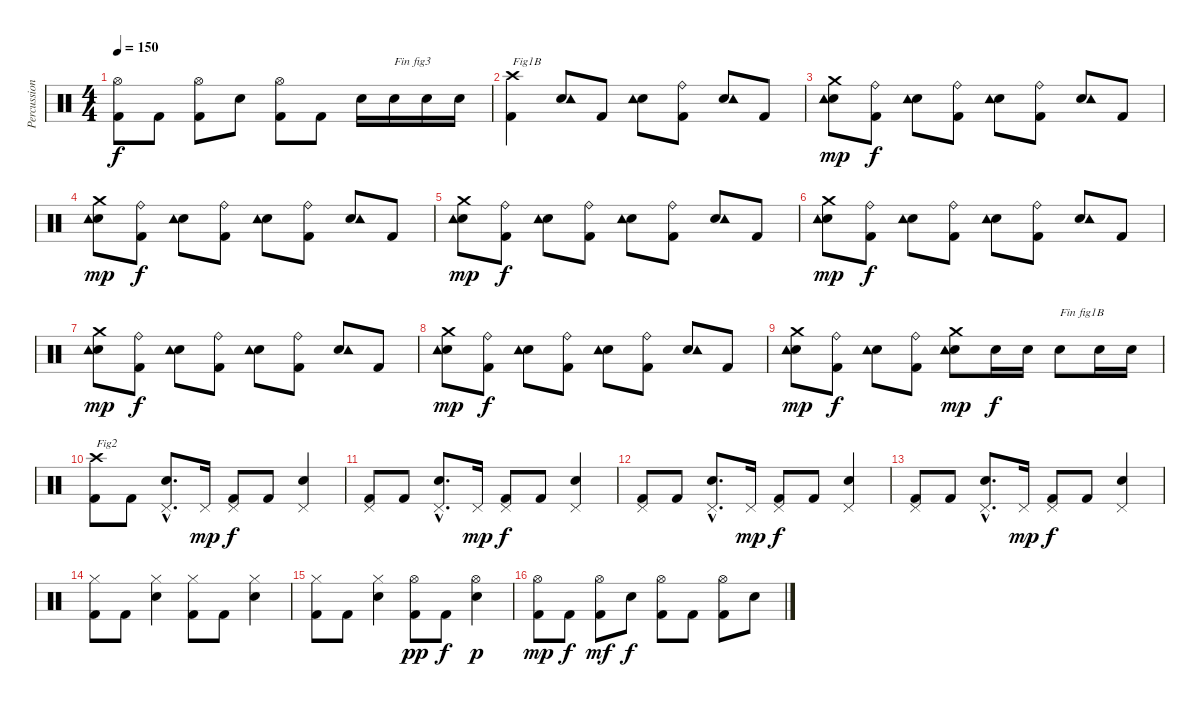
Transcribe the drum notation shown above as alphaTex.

\track ("Percussions" "Percussion") {instrument percussion}
\staff {score}
\articulation defaults
\ts (4 4)
\tempo 150
\clef neutral
\ks c
("Kick (hit) 2" "Hi-Hat (open)").8{dy f} "Kick (hit) 2".8 ("Kick (hit) 2" "Hi-Hat (open)").8 "Electric Snare (hit)".8 ("Kick (hit) 2" "Hi-Hat (open)").8 "Kick (hit) 2".8 "Electric Snare (hit)".16 "Electric Snare (hit)".16{txt "Fin fig3"} "Electric Snare (hit)".16 "Electric Snare (hit)".16 |
("Kick (hit) 2" "Crash high (hit)").4{txt "Fig1B"} ("Electric Snare (hit)" "Tambourine (hit)").8 "Kick (hit) 2".8 ("Electric Snare (hit)" "Tambourine (hit)").8 ("Kick (hit) 2" "Ride (bell)").8 ("Electric Snare (hit)" "Tambourine (hit)").8 "Kick (hit) 2".8 |
("Electric Snare (hit)" "Crash medium (hit)" "Tambourine (hit)").8{dy mp} ("Kick (hit) 2" "Ride (bell)").8{dy f} ("Electric Snare (hit)" "Tambourine (hit)").8 ("Kick (hit) 2" "Ride (bell)").8 ("Electric Snare (hit)" "Tambourine (hit)").8 ("Kick (hit) 2" "Ride (bell)").8 ("Electric Snare (hit)" "Tambourine (hit)").8 "Kick (hit) 2".8 |
("Electric Snare (hit)" "Crash medium (hit)" "Tambourine (hit)").8{dy mp} ("Kick (hit) 2" "Ride (bell)").8{dy f} ("Electric Snare (hit)" "Tambourine (hit)").8 ("Kick (hit) 2" "Ride (bell)").8 ("Electric Snare (hit)" "Tambourine (hit)").8 ("Kick (hit) 2" "Ride (bell)").8 ("Electric Snare (hit)" "Tambourine (hit)").8 "Kick (hit) 2".8 |
("Electric Snare (hit)" "Crash medium (hit)" "Tambourine (hit)").8{dy mp} ("Kick (hit) 2" "Ride (bell)").8{dy f} ("Electric Snare (hit)" "Tambourine (hit)").8 ("Kick (hit) 2" "Ride (bell)").8 ("Electric Snare (hit)" "Tambourine (hit)").8 ("Kick (hit) 2" "Ride (bell)").8 ("Electric Snare (hit)" "Tambourine (hit)").8 "Kick (hit) 2".8 |
("Electric Snare (hit)" "Crash medium (hit)" "Tambourine (hit)").8{dy mp} ("Kick (hit) 2" "Ride (bell)").8{dy f} ("Electric Snare (hit)" "Tambourine (hit)").8 ("Kick (hit) 2" "Ride (bell)").8 ("Electric Snare (hit)" "Tambourine (hit)").8 ("Kick (hit) 2" "Ride (bell)").8 ("Electric Snare (hit)" "Tambourine (hit)").8 "Kick (hit) 2".8 |
("Electric Snare (hit)" "Crash medium (hit)" "Tambourine (hit)").8{dy mp} ("Kick (hit) 2" "Ride (bell)").8{dy f} ("Electric Snare (hit)" "Tambourine (hit)").8 ("Kick (hit) 2" "Ride (bell)").8 ("Electric Snare (hit)" "Tambourine (hit)").8 ("Kick (hit) 2" "Ride (bell)").8 ("Electric Snare (hit)" "Tambourine (hit)").8 "Kick (hit) 2".8 |
("Electric Snare (hit)" "Crash medium (hit)" "Tambourine (hit)").8{dy mp} ("Kick (hit) 2" "Ride (bell)").8{dy f} ("Electric Snare (hit)" "Tambourine (hit)").8 ("Kick (hit) 2" "Ride (bell)").8 ("Electric Snare (hit)" "Tambourine (hit)").8 ("Kick (hit) 2" "Ride (bell)").8 ("Electric Snare (hit)" "Tambourine (hit)").8 "Kick (hit) 2".8 |
("Electric Snare (hit)" "Crash medium (hit)" "Tambourine (hit)").8{dy mp} ("Kick (hit) 2" "Ride (bell)").8{dy f} ("Electric Snare (hit)" "Tambourine (hit)").8 ("Kick (hit) 2" "Ride (bell)").8 ("Electric Snare (hit)" "Crash medium (hit)" "Tambourine (hit)").8{dy mp} "Electric Snare (hit)".16{dy f} "Electric Snare (hit)".16 "Electric Snare (hit)".8{txt "Fin fig1B"} "Electric Snare (hit)".16 "Electric Snare (hit)".16 |
("Kick (hit) 2" "Crash high (hit)").8{txt "Fig2"} "Kick (hit) 2".8 ("Electric Snare (hit)"{hac} "Pedal Hi-Hat (hit)"{hac}).8{d} "Pedal Hi-Hat (hit)".16{dy mp} ("Kick (hit) 2" "Pedal Hi-Hat (hit)").8{dy f} "Kick (hit) 2".8 ("Electric Snare (hit)" "Pedal Hi-Hat (hit)").4 |
("Kick (hit) 2" "Pedal Hi-Hat (hit)").8 "Kick (hit) 2".8 ("Electric Snare (hit)"{hac} "Pedal Hi-Hat (hit)"{hac}).8{d} "Pedal Hi-Hat (hit)".16{dy mp} ("Kick (hit) 2" "Pedal Hi-Hat (hit)").8{dy f} "Kick (hit) 2".8 ("Electric Snare (hit)" "Pedal Hi-Hat (hit)").4 |
("Kick (hit) 2" "Pedal Hi-Hat (hit)").8 "Kick (hit) 2".8 ("Electric Snare (hit)"{hac} "Pedal Hi-Hat (hit)"{hac}).8{d} "Pedal Hi-Hat (hit)".16{dy mp} ("Kick (hit) 2" "Pedal Hi-Hat (hit)").8{dy f} "Kick (hit) 2".8 ("Electric Snare (hit)" "Pedal Hi-Hat (hit)").4 |
("Kick (hit) 2" "Pedal Hi-Hat (hit)").8 "Kick (hit) 2".8 ("Electric Snare (hit)"{hac} "Pedal Hi-Hat (hit)"{hac}).8{d} "Pedal Hi-Hat (hit)".16{dy mp} ("Kick (hit) 2" "Pedal Hi-Hat (hit)").8{dy f} "Kick (hit) 2".8 ("Electric Snare (hit)" "Pedal Hi-Hat (hit)").4 |
("Kick (hit) 2" "Hi-Hat (closed)").8 "Kick (hit) 2".8 ("Electric Snare (hit)" "Hi-Hat (closed)").4 ("Kick (hit) 2" "Hi-Hat (closed)").8 "Kick (hit) 2".8 ("Electric Snare (hit)" "Hi-Hat (closed)").4 |
("Kick (hit) 2" "Hi-Hat (closed)").8 "Kick (hit) 2".8 ("Electric Snare (hit)" "Hi-Hat (closed)").4 ("Kick (hit) 2" "Hi-Hat (open)").8{dy pp} "Kick (hit) 2".8{dy f} ("Electric Snare (hit)" "Hi-Hat (open)").4{dy p} |
("Kick (hit) 2" "Hi-Hat (open)").8{dy mp} "Kick (hit) 2".8{dy f} ("Kick (hit) 2" "Hi-Hat (open)").8{dy mf} "Electric Snare (hit)".8{dy f} ("Kick (hit) 2" "Hi-Hat (open)").8 "Kick (hit) 2".8 ("Kick (hit) 2" "Hi-Hat (open)").8 "Electric Snare (hit)".8
